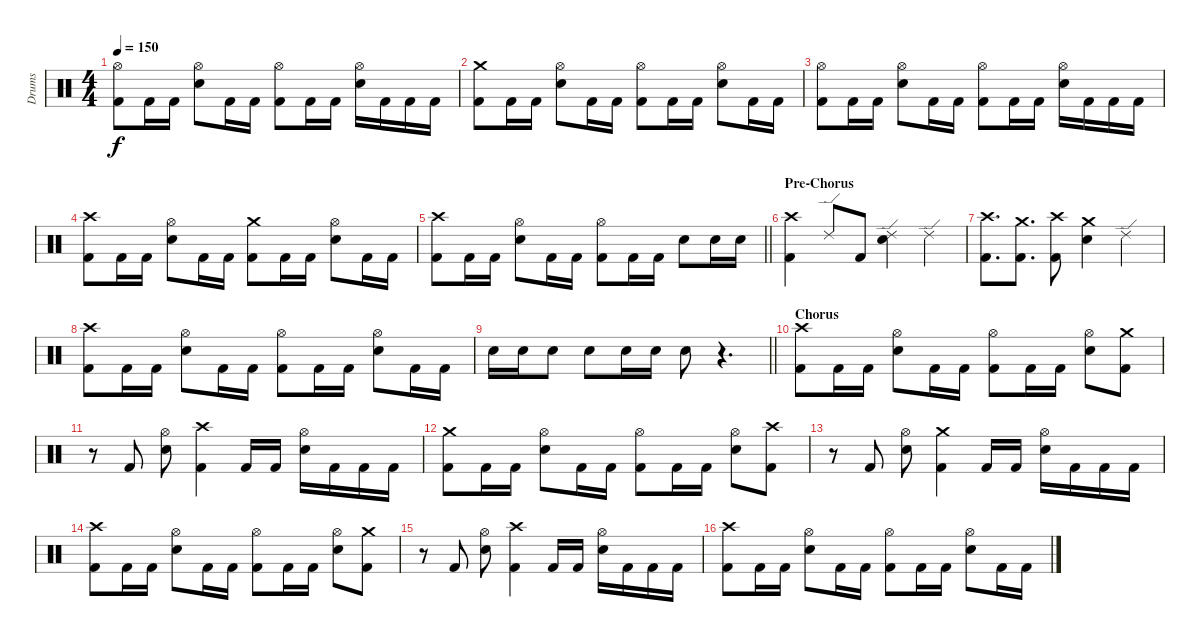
\track ("Drums" "Drums") {instrument percussion}
\staff {score}
\articulation defaults
\ts (4 4)
\tempo 150
\clef neutral
\ks c
("Hi-Hat (open)" "Kick (hit) 2").8{dy f} "Kick (hit) 2".16 "Kick (hit) 2".16 ("Hi-Hat (open)" "Snare (hit) 2").8 "Kick (hit) 2".16 "Kick (hit) 2".16 ("Hi-Hat (open)" "Kick (hit) 2").8 "Kick (hit) 2".16 "Kick (hit) 2".16 ("Hi-Hat (open)" "Snare (hit) 2").16 "Kick (hit) 2".16 "Kick (hit) 2".16 "Kick (hit) 2".16 |
("Crash medium (hit)" "Kick (hit) 2").8 "Kick (hit) 2".16 "Kick (hit) 2".16 ("Hi-Hat (open)" "Snare (hit) 2").8 "Kick (hit) 2".16 "Kick (hit) 2".16 ("Hi-Hat (open)" "Kick (hit) 2").8 "Kick (hit) 2".16 "Kick (hit) 2".16 ("Hi-Hat (open)" "Snare (hit) 2").8 "Kick (hit) 2".16 "Kick (hit) 2".16 |
("Hi-Hat (open)" "Kick (hit) 2").8 "Kick (hit) 2".16 "Kick (hit) 2".16 ("Hi-Hat (open)" "Snare (hit) 2").8 "Kick (hit) 2".16 "Kick (hit) 2".16 ("Hi-Hat (open)" "Kick (hit) 2").8 "Kick (hit) 2".16 "Kick (hit) 2".16 ("Hi-Hat (open)" "Snare (hit) 2").16 "Kick (hit) 2".16 "Kick (hit) 2".16 "Kick (hit) 2".16 |
("Crash high (hit)" "Kick (hit) 2").8 "Kick (hit) 2".16 "Kick (hit) 2".16 ("Hi-Hat (open)" "Snare (hit) 2").8 "Kick (hit) 2".16 "Kick (hit) 2".16 ("Crash medium (hit)" "Kick (hit) 2").8 "Kick (hit) 2".16 "Kick (hit) 2".16 ("Hi-Hat (open)" "Snare (hit) 2").8 "Kick (hit) 2".16 "Kick (hit) 2".16 |
\barLineRight lightlight
("Crash high (hit)" "Kick (hit) 2").8 "Kick (hit) 2".16 "Kick (hit) 2".16 ("Hi-Hat (open)" "Snare (hit) 2").8 "Kick (hit) 2".16 "Kick (hit) 2".16 ("Hi-Hat (open)" "Kick (hit) 2").8 "Kick (hit) 2".16 "Kick (hit) 2".16 "Snare (hit) 2".8 "Snare (hit) 2".16 "Snare (hit) 2".16 |
\section ("" "Pre-Chorus")
("Crash high (hit)" "Kick (hit) 2").4 "Ride (edge) 2".8 "Kick (hit) 2".8 ("Ride (edge) 2" "Snare (hit) 2").4 "Ride (edge) 2".4 |
("Crash high (hit)" "Kick (hit) 2").8{d} ("Crash medium (hit)" "Kick (hit) 2").8{d} ("Crash high (hit)" "Kick (hit) 2").8 ("Crash medium (hit)" "Snare (hit) 2").4 "Ride (edge) 2".4 |
("Crash high (hit)" "Kick (hit) 2").8 "Kick (hit) 2".16 "Kick (hit) 2".16 ("Hi-Hat (open)" "Snare (hit) 2").8 "Kick (hit) 2".16 "Kick (hit) 2".16 ("Hi-Hat (open)" "Kick (hit) 2").8 "Kick (hit) 2".16 "Kick (hit) 2".16 ("Hi-Hat (open)" "Snare (hit) 2").8 "Kick (hit) 2".16 "Kick (hit) 2".16 |
\barLineRight lightlight "Snare (hit) 2".16 "Snare (hit) 2".16 "Snare (hit) 2".8 "Snare (hit) 2".8 "Snare (hit) 2".16 "Snare (hit) 2".16 "Snare (hit) 2".8
r.4{d} |
\section ("" "Chorus")
("Crash high (hit)" "Kick (hit) 2").8 "Kick (hit) 2".16 "Kick (hit) 2".16 ("Hi-Hat (open)" "Snare (hit) 2").8 "Kick (hit) 2".16 "Kick (hit) 2".16 ("Hi-Hat (open)" "Kick (hit) 2").8 "Kick (hit) 2".16 "Kick (hit) 2".16 ("Hi-Hat (open)" "Snare (hit) 2").8 ("Crash medium (hit)" "Kick (hit) 2").8 |
r.8 "Kick (hit) 2".8 ("Hi-Hat (open)" "Snare (hit) 2").8 ("Crash high (hit)" "Kick (hit) 2").4 "Kick (hit) 2".16 "Kick (hit) 2".16 ("Hi-Hat (open)" "Snare (hit) 2").16 "Kick (hit) 2".16 "Kick (hit) 2".16 "Kick (hit) 2".16 |
("Crash medium (hit)" "Kick (hit) 2").8 "Kick (hit) 2".16 "Kick (hit) 2".16 ("Hi-Hat (open)" "Snare (hit) 2").8 "Kick (hit) 2".16 "Kick (hit) 2".16 ("Hi-Hat (open)" "Kick (hit) 2").8 "Kick (hit) 2".16 "Kick (hit) 2".16 ("Hi-Hat (open)" "Snare (hit) 2").8 ("Crash high (hit)" "Kick (hit) 2").8 |
r.8 "Kick (hit) 2".8 ("Hi-Hat (open)" "Snare (hit) 2").8 ("Crash medium (hit)" "Kick (hit) 2").4 "Kick (hit) 2".16 "Kick (hit) 2".16 ("Hi-Hat (open)" "Snare (hit) 2").16 "Kick (hit) 2".16 "Kick (hit) 2".16 "Kick (hit) 2".16 |
("Crash high (hit)" "Kick (hit) 2").8 "Kick (hit) 2".16 "Kick (hit) 2".16 ("Hi-Hat (open)" "Snare (hit) 2").8 "Kick (hit) 2".16 "Kick (hit) 2".16 ("Hi-Hat (open)" "Kick (hit) 2").8 "Kick (hit) 2".16 "Kick (hit) 2".16 ("Hi-Hat (open)" "Snare (hit) 2").8 ("Crash medium (hit)" "Kick (hit) 2").8 |
r.8 "Kick (hit) 2".8 ("Hi-Hat (open)" "Snare (hit) 2").8 ("Crash high (hit)" "Kick (hit) 2").4 "Kick (hit) 2".16 "Kick (hit) 2".16 ("Hi-Hat (open)" "Snare (hit) 2").16 "Kick (hit) 2".16 "Kick (hit) 2".16 "Kick (hit) 2".16 |
("Crash high (hit)" "Kick (hit) 2").8 "Kick (hit) 2".16 "Kick (hit) 2".16 ("Hi-Hat (open)" "Snare (hit) 2").8 "Kick (hit) 2".16 "Kick (hit) 2".16 ("Hi-Hat (open)" "Kick (hit) 2").8 "Kick (hit) 2".16 "Kick (hit) 2".16 ("Hi-Hat (open)" "Snare (hit) 2").8 "Kick (hit) 2".16 "Kick (hit) 2".16
